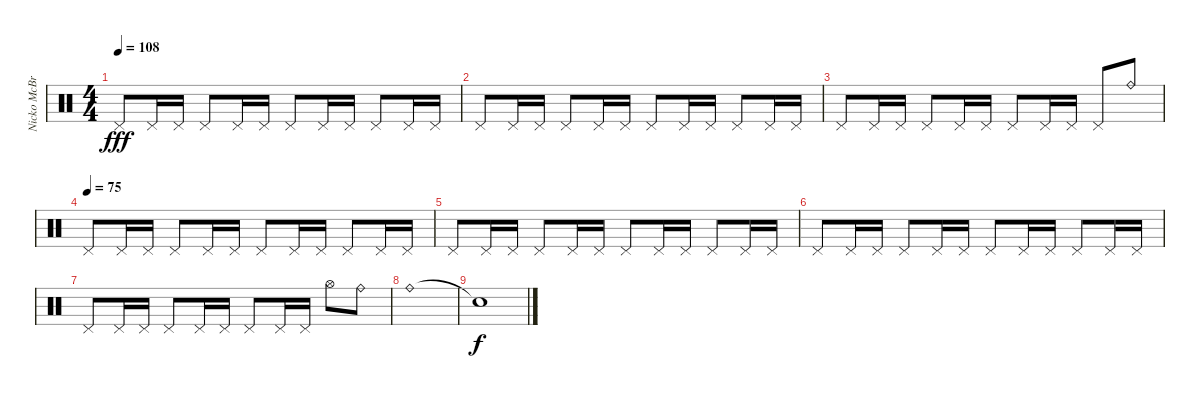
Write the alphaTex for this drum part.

\track ("Nicko McBrain" "Nicko McBr") {instrument percussion}
\staff {score}
\articulation defaults
\ts (4 4)
\tempo 108
\clef neutral
\ks c "Pedal Hi-Hat (hit)".8{dy fff} "Pedal Hi-Hat (hit)".16 "Pedal Hi-Hat (hit)".16 "Pedal Hi-Hat (hit)".8 "Pedal Hi-Hat (hit)".16 "Pedal Hi-Hat (hit)".16 "Pedal Hi-Hat (hit)".8 "Pedal Hi-Hat (hit)".16 "Pedal Hi-Hat (hit)".16 "Pedal Hi-Hat (hit)".8 "Pedal Hi-Hat (hit)".16 "Pedal Hi-Hat (hit)".16
|
"Pedal Hi-Hat (hit)".8 "Pedal Hi-Hat (hit)".16 "Pedal Hi-Hat (hit)".16 "Pedal Hi-Hat (hit)".8 "Pedal Hi-Hat (hit)".16 "Pedal Hi-Hat (hit)".16 "Pedal Hi-Hat (hit)".8 "Pedal Hi-Hat (hit)".16 "Pedal Hi-Hat (hit)".16 "Pedal Hi-Hat (hit)".8 "Pedal Hi-Hat (hit)".16 "Pedal Hi-Hat (hit)".16 |
"Pedal Hi-Hat (hit)".8 "Pedal Hi-Hat (hit)".16 "Pedal Hi-Hat (hit)".16 "Pedal Hi-Hat (hit)".8 "Pedal Hi-Hat (hit)".16 "Pedal Hi-Hat (hit)".16 "Pedal Hi-Hat (hit)".8 "Pedal Hi-Hat (hit)".16 "Pedal Hi-Hat (hit)".16 "Pedal Hi-Hat (hit)".8 "Ride (bell)".8 |
\tempo (75)
"Pedal Hi-Hat (hit)".8 "Pedal Hi-Hat (hit)".16 "Pedal Hi-Hat (hit)".16 "Pedal Hi-Hat (hit)".8 "Pedal Hi-Hat (hit)".16 "Pedal Hi-Hat (hit)".16 "Pedal Hi-Hat (hit)".8 "Pedal Hi-Hat (hit)".16 "Pedal Hi-Hat (hit)".16 "Pedal Hi-Hat (hit)".8 "Pedal Hi-Hat (hit)".16 "Pedal Hi-Hat (hit)".16 |
"Pedal Hi-Hat (hit)".8 "Pedal Hi-Hat (hit)".16 "Pedal Hi-Hat (hit)".16 "Pedal Hi-Hat (hit)".8 "Pedal Hi-Hat (hit)".16 "Pedal Hi-Hat (hit)".16 "Pedal Hi-Hat (hit)".8 "Pedal Hi-Hat (hit)".16 "Pedal Hi-Hat (hit)".16 "Pedal Hi-Hat (hit)".8 "Pedal Hi-Hat (hit)".16 "Pedal Hi-Hat (hit)".16 |
"Pedal Hi-Hat (hit)".8 "Pedal Hi-Hat (hit)".16 "Pedal Hi-Hat (hit)".16 "Pedal Hi-Hat (hit)".8 "Pedal Hi-Hat (hit)".16 "Pedal Hi-Hat (hit)".16 "Pedal Hi-Hat (hit)".8 "Pedal Hi-Hat (hit)".16 "Pedal Hi-Hat (hit)".16 "Pedal Hi-Hat (hit)".8 "Pedal Hi-Hat (hit)".16 "Pedal Hi-Hat (hit)".16 |
"Pedal Hi-Hat (hit)".8 "Pedal Hi-Hat (hit)".16 "Pedal Hi-Hat (hit)".16 "Pedal Hi-Hat (hit)".8 "Pedal Hi-Hat (hit)".16 "Pedal Hi-Hat (hit)".16 "Pedal Hi-Hat (hit)".8 "Pedal Hi-Hat (hit)".16 "Pedal Hi-Hat (hit)".16 "Hi-Hat (open)".8 "Ride (bell)".8 |
"Ride (bell)".1 |
"Snare (hit)"{t}.1{dy f}
